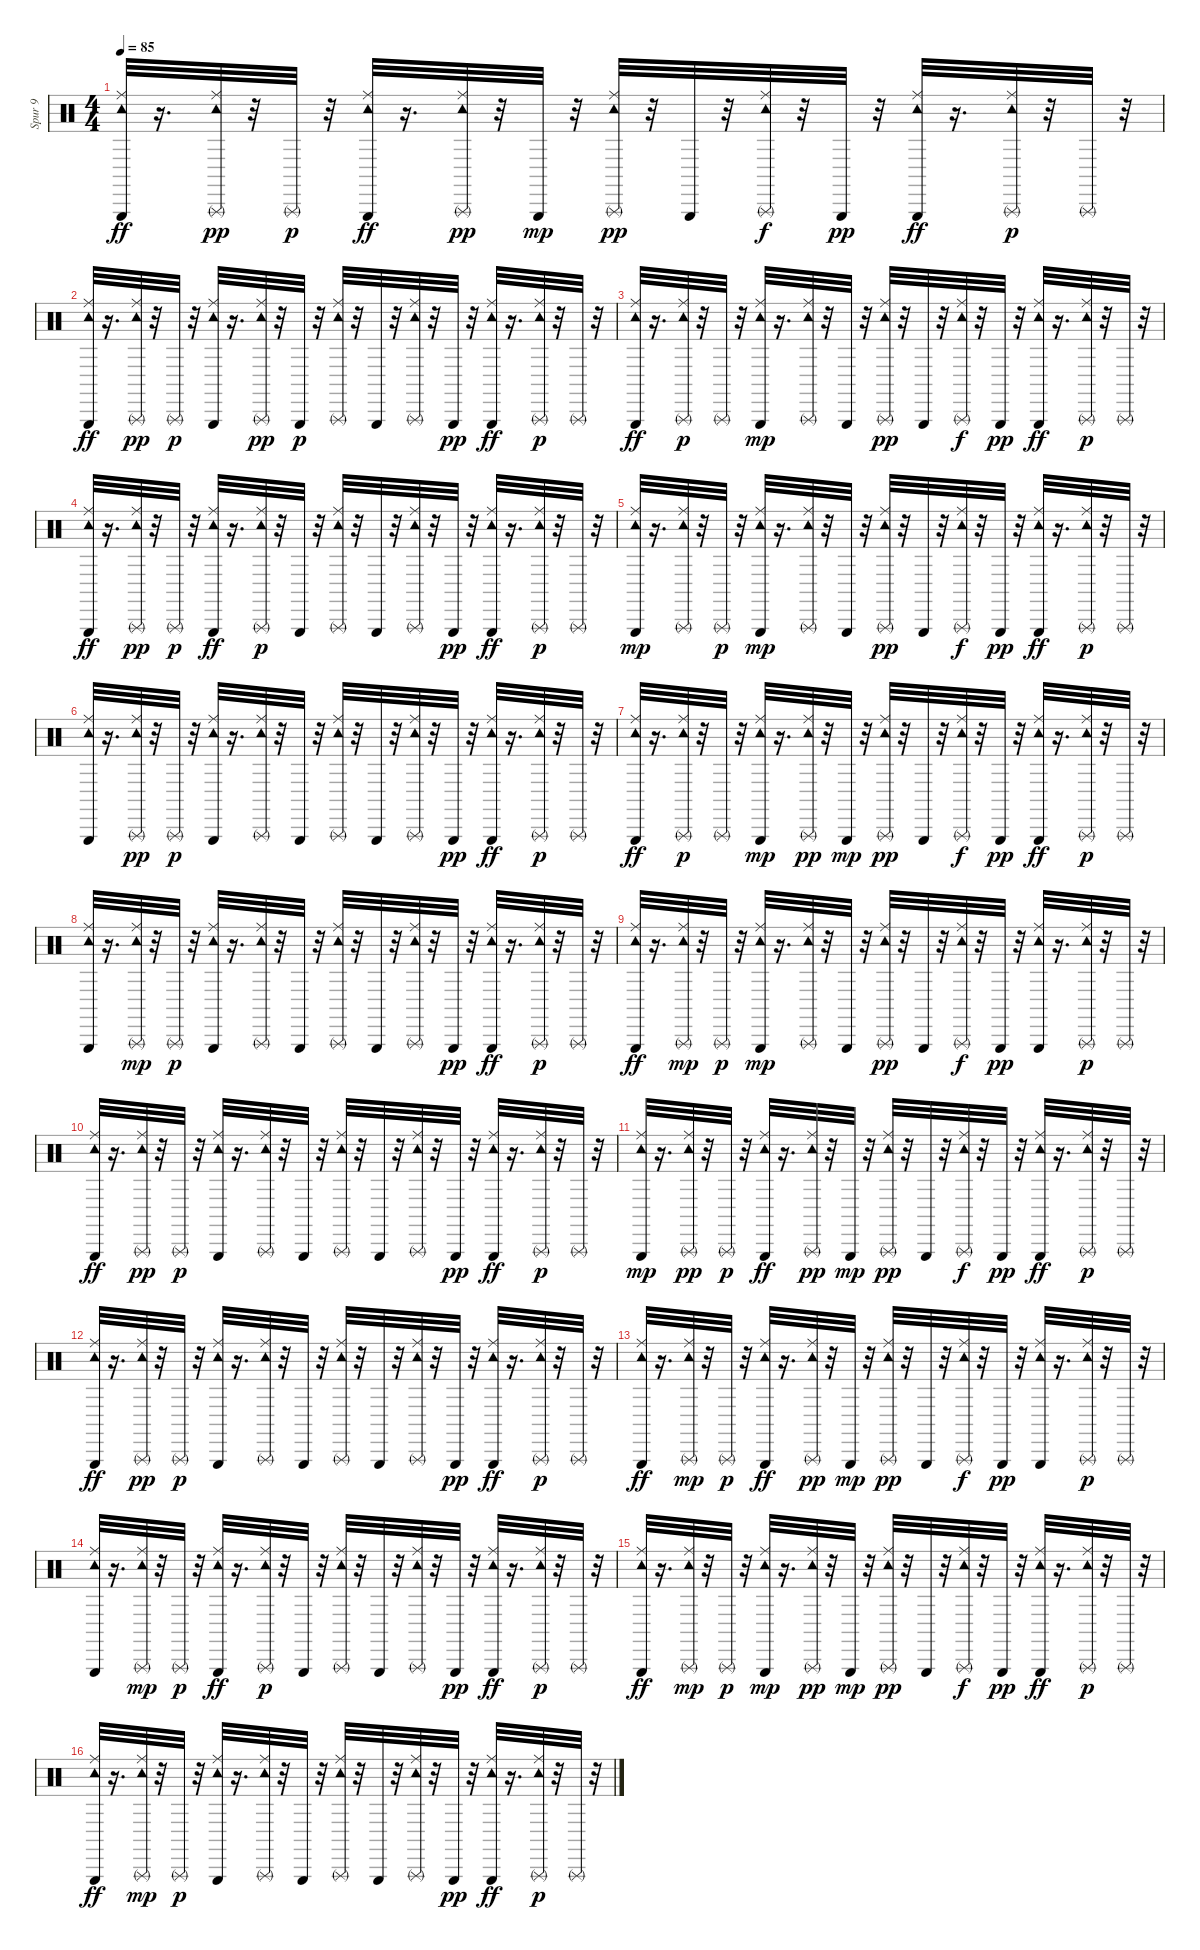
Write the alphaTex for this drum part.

\track ("Spur 9" "Spur 9") {instrument percussion}
\staff {score}
\articulation defaults
\ts (4 4)
\tempo 85
\clef neutral
\ks c
("Ride (middle)" "Triangle (hit)" "Tambourine (hit)").32{dy ff} r.16{d} ("Triangle (rnute)" "Tambourine (hit)" "Ride (middle)").32{dy pp} r.32 "Triangle (rnute)".32{dy p} r.32 ("Triangle (hit)" "Ride (middle)" "Tambourine (hit)").32{dy ff} r.16{d} ("Tambourine (hit)" "Ride (middle)" "Triangle (rnute)").32{dy pp} r.32 "Triangle (hit)".32{dy mp} r.32 ("Ride (middle)" "Tambourine (hit)" "Triangle (rnute)").32{dy pp} r.32 "Triangle (hit)".32 r.32 ("Tambourine (hit)" "Ride (middle)" "Triangle (rnute)").32{dy f} r.32 "Triangle (hit)".32{dy pp} r.32 ("Triangle (hit)" "Ride (middle)" "Tambourine (hit)").32{dy ff} r.16{d} ("Tambourine (hit)" "Triangle (rnute)" "Ride (middle)").32{dy p} r.32 "Triangle (rnute)".32 r.32 |
("Ride (middle)" "Triangle (hit)" "Tambourine (hit)").32{dy ff} r.16{d} ("Triangle (rnute)" "Tambourine (hit)" "Ride (middle)").32{dy pp} r.32 "Triangle (rnute)".32{dy p} r.32 ("Tambourine (hit)" "Triangle (hit)" "Ride (middle)").32 r.16{d} ("Tambourine (hit)" "Triangle (rnute)" "Ride (middle)").32{dy pp} r.32 "Triangle (hit)".32{dy p} r.32 ("Ride (middle)" "Tambourine (hit)" "Triangle (rnute)").32 r.32 "Triangle (hit)".32 r.32 ("Ride (middle)" "Tambourine (hit)" "Triangle (rnute)").32 r.32 "Triangle (hit)".32{dy pp} r.32 ("Triangle (hit)" "Ride (middle)" "Tambourine (hit)").32{dy ff} r.16{d} ("Tambourine (hit)" "Triangle (rnute)" "Ride (middle)").32{dy p} r.32 "Triangle (rnute)".32 r.32 |
("Ride (middle)" "Triangle (hit)" "Tambourine (hit)").32{dy ff} r.16{d} ("Tambourine (hit)" "Ride (middle)" "Triangle (rnute)").32{dy p} r.32 "Triangle (rnute)".32 r.32 ("Ride (middle)" "Tambourine (hit)" "Triangle (hit)").32{dy mp} r.16{d} ("Ride (middle)" "Triangle (rnute)" "Tambourine (hit)").32 r.32 "Triangle (hit)".32 r.32 ("Triangle (rnute)" "Ride (middle)" "Tambourine (hit)").32{dy pp} r.32 "Triangle (hit)".32 r.32 ("Ride (middle)" "Tambourine (hit)" "Triangle (rnute)").32{dy f} r.32 "Triangle (hit)".32{dy pp} r.32 ("Ride (middle)" "Triangle (hit)" "Tambourine (hit)").32{dy ff} r.16{d} ("Tambourine (hit)" "Triangle (rnute)" "Ride (middle)").32{dy p} r.32 "Triangle (rnute)".32 r.32 |
("Ride (middle)" "Triangle (hit)" "Tambourine (hit)").32{dy ff} r.16{d} ("Triangle (rnute)" "Tambourine (hit)" "Ride (middle)").32{dy pp} r.32 "Triangle (rnute)".32{dy p} r.32 ("Triangle (hit)" "Ride (middle)" "Tambourine (hit)").32{dy ff} r.16{d} ("Tambourine (hit)" "Ride (middle)" "Triangle (rnute)").32{dy p} r.32 "Triangle (hit)".32 r.32 ("Ride (middle)" "Tambourine (hit)" "Triangle (rnute)").32 r.32 "Triangle (hit)".32 r.32 ("Tambourine (hit)" "Ride (middle)" "Triangle (rnute)").32 r.32 "Triangle (hit)".32{dy pp} r.32 ("Ride (middle)" "Triangle (hit)" "Tambourine (hit)").32{dy ff} r.16{d} ("Tambourine (hit)" "Triangle (rnute)" "Ride (middle)").32{dy p} r.32 "Triangle (rnute)".32 r.32 |
("Tambourine (hit)" "Ride (middle)" "Triangle (hit)").32{dy mp} r.16{d} ("Triangle (rnute)" "Ride (middle)" "Tambourine (hit)").32 r.32 "Triangle (rnute)".32{dy p} r.32 ("Tambourine (hit)" "Ride (middle)" "Triangle (hit)").32{dy mp} r.16{d} ("Ride (middle)" "Triangle (rnute)" "Tambourine (hit)").32 r.32 "Triangle (hit)".32 r.32 ("Ride (middle)" "Tambourine (hit)" "Triangle (rnute)").32{dy pp} r.32 "Triangle (hit)".32 r.32 ("Tambourine (hit)" "Ride (middle)" "Triangle (rnute)").32{dy f} r.32 "Triangle (hit)".32{dy pp} r.32 ("Triangle (hit)" "Ride (middle)" "Tambourine (hit)").32{dy ff} r.16{d} ("Tambourine (hit)" "Triangle (rnute)" "Ride (middle)").32{dy p} r.32 "Triangle (rnute)".32 r.32 |
("Ride (middle)" "Tambourine (hit)" "Triangle (hit)").32 r.16{d} ("Tambourine (hit)" "Triangle (rnute)" "Ride (middle)").32{dy pp} r.32 "Triangle (rnute)".32{dy p} r.32 ("Ride (middle)" "Tambourine (hit)" "Triangle (hit)").32 r.16{d} ("Tambourine (hit)" "Ride (middle)" "Triangle (rnute)").32 r.32 "Triangle (hit)".32 r.32 ("Triangle (rnute)" "Tambourine (hit)" "Ride (middle)").32 r.32 "Triangle (hit)".32 r.32 ("Ride (middle)" "Tambourine (hit)" "Triangle (rnute)").32 r.32 "Triangle (hit)".32{dy pp} r.32 ("Triangle (hit)" "Tambourine (hit)" "Ride (middle)").32{dy ff} r.16{d} ("Ride (middle)" "Tambourine (hit)" "Triangle (rnute)").32{dy p} r.32 "Triangle (rnute)".32 r.32 |
("Ride (middle)" "Triangle (hit)" "Tambourine (hit)").32{dy ff} r.16{d} ("Ride (middle)" "Tambourine (hit)" "Triangle (rnute)").32{dy p} r.32 "Triangle (rnute)".32 r.32 ("Tambourine (hit)" "Ride (middle)" "Triangle (hit)").32{dy mp} r.16{d} ("Tambourine (hit)" "Ride (middle)" "Triangle (rnute)").32{dy pp} r.32 "Triangle (hit)".32{dy mp} r.32 ("Ride (middle)" "Tambourine (hit)" "Triangle (rnute)").32{dy pp} r.32 "Triangle (hit)".32 r.32 ("Ride (middle)" "Tambourine (hit)" "Triangle (rnute)").32{dy f} r.32 "Triangle (hit)".32{dy pp} r.32 ("Ride (middle)" "Triangle (hit)" "Tambourine (hit)").32{dy ff} r.16{d} ("Tambourine (hit)" "Triangle (rnute)" "Ride (middle)").32{dy p} r.32 "Triangle (rnute)".32 r.32 |
("Ride (middle)" "Tambourine (hit)" "Triangle (hit)").32 r.16{d} ("Ride (middle)" "Tambourine (hit)" "Triangle (rnute)").32{dy mp} r.32 "Triangle (rnute)".32{dy p} r.32 ("Ride (middle)" "Tambourine (hit)" "Triangle (hit)").32 r.16{d} ("Ride (middle)" "Triangle (rnute)" "Tambourine (hit)").32 r.32 "Triangle (hit)".32 r.32 ("Ride (middle)" "Triangle (rnute)" "Tambourine (hit)").32 r.32 "Triangle (hit)".32 r.32 ("Ride (middle)" "Tambourine (hit)" "Triangle (rnute)").32 r.32 "Triangle (hit)".32{dy pp} r.32 ("Triangle (hit)" "Ride (middle)" "Tambourine (hit)").32{dy ff} r.16{d} ("Tambourine (hit)" "Triangle (rnute)" "Ride (middle)").32{dy p} r.32 "Triangle (rnute)".32 r.32 |
("Ride (middle)" "Triangle (hit)" "Tambourine (hit)").32{dy ff} r.16{d} ("Triangle (rnute)" "Ride (middle)" "Tambourine (hit)").32{dy mp} r.32 "Triangle (rnute)".32{dy p} r.32 ("Tambourine (hit)" "Triangle (hit)" "Ride (middle)").32{dy mp} r.16{d} ("Ride (middle)" "Triangle (rnute)" "Tambourine (hit)").32 r.32 "Triangle (hit)".32 r.32 ("Ride (middle)" "Tambourine (hit)" "Triangle (rnute)").32{dy pp} r.32 "Triangle (hit)".32 r.32 ("Ride (middle)" "Tambourine (hit)" "Triangle (rnute)").32{dy f} r.32 "Triangle (hit)".32{dy pp} r.32 ("Tambourine (hit)" "Ride (middle)" "Triangle (hit)").32 r.16{d} ("Tambourine (hit)" "Triangle (rnute)" "Ride (middle)").32{dy p} r.32 "Triangle (rnute)".32 r.32 |
("Ride (middle)" "Triangle (hit)" "Tambourine (hit)").32{dy ff} r.16{d} ("Tambourine (hit)" "Triangle (rnute)" "Ride (middle)").32{dy pp} r.32 "Triangle (rnute)".32{dy p} r.32 ("Ride (middle)" "Tambourine (hit)" "Triangle (hit)").32 r.16{d} ("Ride (middle)" "Tambourine (hit)" "Triangle (rnute)").32 r.32 "Triangle (hit)".32 r.32 ("Ride (middle)" "Tambourine (hit)" "Triangle (rnute)").32 r.32 "Triangle (hit)".32 r.32 ("Ride (middle)" "Tambourine (hit)" "Triangle (rnute)").32 r.32 "Triangle (hit)".32{dy pp} r.32 ("Triangle (hit)" "Ride (middle)" "Tambourine (hit)").32{dy ff} r.16{d} ("Tambourine (hit)" "Triangle (rnute)" "Ride (middle)").32{dy p} r.32 "Triangle (rnute)".32 r.32 |
("Tambourine (hit)" "Ride (middle)" "Triangle (hit)").32{dy mp} r.16{d} ("Triangle (rnute)" "Tambourine (hit)" "Ride (middle)").32{dy pp} r.32 "Triangle (rnute)".32{dy p} r.32 ("Triangle (hit)" "Tambourine (hit)" "Ride (middle)").32{dy ff} r.16{d} ("Ride (middle)" "Tambourine (hit)" "Triangle (rnute)").32{dy pp} r.32 "Triangle (hit)".32{dy mp} r.32 ("Tambourine (hit)" "Ride (middle)" "Triangle (rnute)").32{dy pp} r.32 "Triangle (hit)".32 r.32 ("Tambourine (hit)" "Ride (middle)" "Triangle (rnute)").32{dy f} r.32 "Triangle (hit)".32{dy pp} r.32 ("Ride (middle)" "Triangle (hit)" "Tambourine (hit)").32{dy ff} r.16{d} ("Tambourine (hit)" "Triangle (rnute)" "Ride (middle)").32{dy p} r.32 "Triangle (rnute)".32 r.32 |
("Ride (middle)" "Triangle (hit)" "Tambourine (hit)").32{dy ff} r.16{d} ("Tambourine (hit)" "Triangle (rnute)" "Ride (middle)").32{dy pp} r.32 "Triangle (rnute)".32{dy p} r.32 ("Tambourine (hit)" "Triangle (hit)" "Ride (middle)").32 r.16{d} ("Ride (middle)" "Tambourine (hit)" "Triangle (rnute)").32 r.32 "Triangle (hit)".32 r.32 ("Ride (middle)" "Tambourine (hit)" "Triangle (rnute)").32 r.32 "Triangle (hit)".32 r.32 ("Ride (middle)" "Tambourine (hit)" "Triangle (rnute)").32 r.32 "Triangle (hit)".32{dy pp} r.32 ("Ride (middle)" "Triangle (hit)" "Tambourine (hit)").32{dy ff} r.16{d} ("Tambourine (hit)" "Triangle (rnute)" "Ride (middle)").32{dy p} r.32 "Triangle (rnute)".32 r.32 |
("Ride (middle)" "Triangle (hit)" "Tambourine (hit)").32{dy ff} r.16{d} ("Triangle (rnute)" "Ride (middle)" "Tambourine (hit)").32{dy mp} r.32 "Triangle (rnute)".32{dy p} r.32 ("Triangle (hit)" "Tambourine (hit)" "Ride (middle)").32{dy ff} r.16{d} ("Ride (middle)" "Tambourine (hit)" "Triangle (rnute)").32{dy pp} r.32 "Triangle (hit)".32{dy mp} r.32 ("Ride (middle)" "Tambourine (hit)" "Triangle (rnute)").32{dy pp} r.32 "Triangle (hit)".32 r.32 ("Tambourine (hit)" "Ride (middle)" "Triangle (rnute)").32{dy f} r.32 "Triangle (hit)".32{dy pp} r.32 ("Tambourine (hit)" "Ride (middle)" "Triangle (hit)").32 r.16{d} ("Tambourine (hit)" "Triangle (rnute)" "Ride (middle)").32{dy p} r.32 "Triangle (rnute)".32 r.32 |
("Tambourine (hit)" "Triangle (hit)" "Ride (middle)").32 r.16{d} ("Triangle (rnute)" "Ride (middle)" "Tambourine (hit)").32{dy mp} r.32 "Triangle (rnute)".32{dy p} r.32 ("Triangle (hit)" "Tambourine (hit)" "Ride (middle)").32{dy ff} r.16{d} ("Ride (middle)" "Tambourine (hit)" "Triangle (rnute)").32{dy p} r.32 "Triangle (hit)".32 r.32 ("Ride (middle)" "Tambourine (hit)" "Triangle (rnute)").32 r.32 "Triangle (hit)".32 r.32 ("Ride (middle)" "Tambourine (hit)" "Triangle (rnute)").32 r.32 "Triangle (hit)".32{dy pp} r.32 ("Triangle (hit)" "Ride (middle)" "Tambourine (hit)").32{dy ff} r.16{d} ("Tambourine (hit)" "Triangle (rnute)" "Ride (middle)").32{dy p} r.32 "Triangle (rnute)".32 r.32 |
("Triangle (hit)" "Tambourine (hit)" "Ride (middle)").32{dy ff} r.16{d} ("Triangle (rnute)" "Ride (middle)" "Tambourine (hit)").32{dy mp} r.32 "Triangle (rnute)".32{dy p} r.32 ("Tambourine (hit)" "Ride (middle)" "Triangle (hit)").32{dy mp} r.16{d} ("Ride (middle)" "Tambourine (hit)" "Triangle (rnute)").32{dy pp} r.32 "Triangle (hit)".32{dy mp} r.32 ("Ride (middle)" "Tambourine (hit)" "Triangle (rnute)").32{dy pp} r.32 "Triangle (hit)".32 r.32 ("Tambourine (hit)" "Ride (middle)" "Triangle (rnute)").32{dy f} r.32 "Triangle (hit)".32{dy pp} r.32 ("Ride (middle)" "Triangle (hit)" "Tambourine (hit)").32{dy ff} r.16{d} ("Tambourine (hit)" "Triangle (rnute)" "Ride (middle)").32{dy p} r.32 "Triangle (rnute)".32 r.32 |
("Ride (middle)" "Triangle (hit)" "Tambourine (hit)").32{dy ff} r.16{d} ("Triangle (rnute)" "Ride (middle)" "Tambourine (hit)").32{dy mp} r.32 "Triangle (rnute)".32{dy p} r.32 ("Tambourine (hit)" "Triangle (hit)" "Ride (middle)").32 r.16{d} ("Ride (middle)" "Triangle (rnute)" "Tambourine (hit)").32 r.32 "Triangle (hit)".32 r.32 ("Ride (middle)" "Tambourine (hit)" "Triangle (rnute)").32 r.32 "Triangle (hit)".32 r.32 ("Ride (middle)" "Tambourine (hit)" "Triangle (rnute)").32 r.32 "Triangle (hit)".32{dy pp} r.32 ("Ride (middle)" "Triangle (hit)" "Tambourine (hit)").32{dy ff} r.16{d} ("Tambourine (hit)" "Triangle (rnute)" "Ride (middle)").32{dy p} r.32 "Triangle (rnute)".32 r.32
